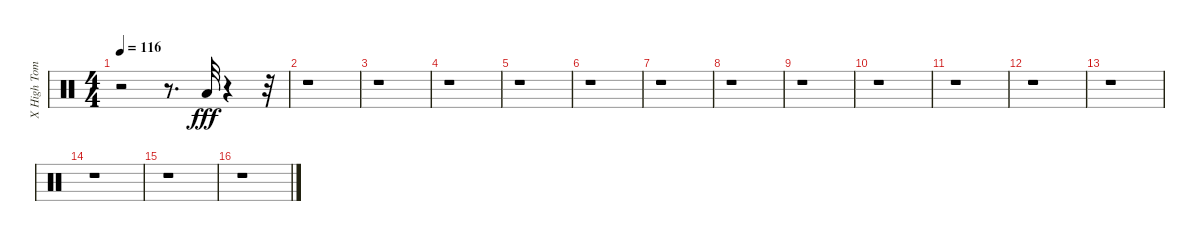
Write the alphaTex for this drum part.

\track ("X High Tom          " "X High Tom") {instrument percussion}
\staff {score}
\articulation defaults
\ts (4 4)
\tempo 116
\clef neutral
\ks c
r.2{dy fff} r.8{d} "Low Tom (hit)".32 r.4 r.32 |
r.1 |
r.1 |
r.1 |
r.1 |
r.1 |
r.1 |
r.1 |
r.1 |
r.1 |
r.1 |
r.1 |
r.1 |
r.1 |
r.1 |
r.1
